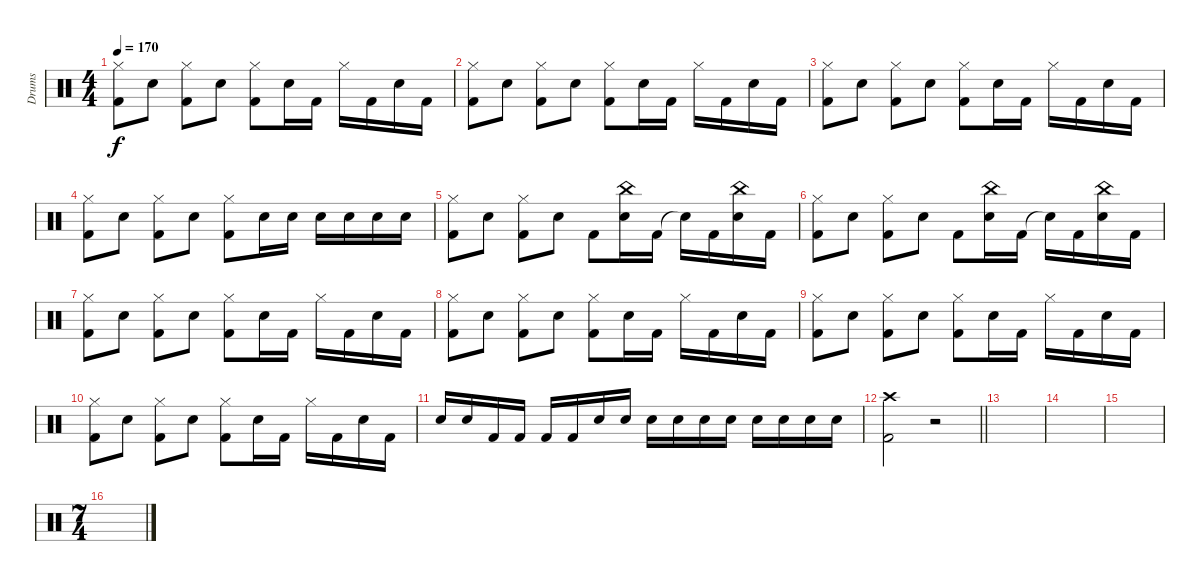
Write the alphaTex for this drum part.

\track ("Drums" "Drums") {instrument percussion}
\staff {score}
\articulation defaults
\ts (4 4)
\tempo 170
\clef neutral
\ks c
("Hi-Hat (closed)" "Kick (hit) 2").8{dy f} "Snare (hit) 2".8 ("Hi-Hat (closed)" "Kick (hit) 2").8 "Snare (hit) 2".8 ("Hi-Hat (closed)" "Kick (hit) 2").8 "Snare (hit) 2".16 "Kick (hit) 2".16 "Hi-Hat (closed)".16 "Kick (hit) 2".16 "Snare (hit) 2".16 "Kick (hit) 2".16 |
("Hi-Hat (closed)" "Kick (hit) 2").8 "Snare (hit) 2".8 ("Hi-Hat (closed)" "Kick (hit) 2").8 "Snare (hit) 2".8 ("Hi-Hat (closed)" "Kick (hit) 2").8 "Snare (hit) 2".16 "Kick (hit) 2".16 "Hi-Hat (closed)".16 "Kick (hit) 2".16 "Snare (hit) 2".16 "Kick (hit) 2".16 |
("Hi-Hat (closed)" "Kick (hit) 2").8 "Snare (hit) 2".8 ("Hi-Hat (closed)" "Kick (hit) 2").8 "Snare (hit) 2".8 ("Hi-Hat (closed)" "Kick (hit) 2").8 "Snare (hit) 2".16 "Kick (hit) 2".16 "Hi-Hat (closed)".16 "Kick (hit) 2".16 "Snare (hit) 2".16 "Kick (hit) 2".16 |
("Hi-Hat (closed)" "Kick (hit) 2").8 "Snare (hit) 2".8 ("Hi-Hat (closed)" "Kick (hit) 2").8 "Snare (hit) 2".8 ("Hi-Hat (closed)" "Kick (hit) 2").8 "Snare (hit) 2".16 "Snare (hit) 2".16 "Snare (hit) 2".16 "Snare (hit) 2".16 "Snare (hit) 2".16 "Snare (hit) 2".16 |
("Hi-Hat (closed)" "Kick (hit) 2").8 "Snare (hit) 2".8 ("Hi-Hat (closed)" "Kick (hit) 2").8 "Snare (hit) 2".8 "Kick (hit) 2".8 ("China (hit)" "Snare (hit) 2").16 "Kick (hit) 2".16 "Snare (hit)"{t}.16 "Kick (hit) 2".16 ("China (hit)" "Snare (hit) 2").16 "Kick (hit) 2".16 |
("Hi-Hat (closed)" "Kick (hit) 2").8 "Snare (hit) 2".8 ("Hi-Hat (closed)" "Kick (hit) 2").8 "Snare (hit) 2".8 "Kick (hit) 2".8 ("China (hit)" "Snare (hit) 2").16 "Kick (hit) 2".16 "Snare (hit)"{t}.16 "Kick (hit) 2".16 ("China (hit)" "Snare (hit) 2").16 "Kick (hit) 2".16 |
("Hi-Hat (closed)" "Kick (hit) 2").8 "Snare (hit) 2".8 ("Hi-Hat (closed)" "Kick (hit) 2").8 "Snare (hit) 2".8 ("Hi-Hat (closed)" "Kick (hit) 2").8 "Snare (hit) 2".16 "Kick (hit) 2".16 "Hi-Hat (closed)".16 "Kick (hit) 2".16 "Snare (hit) 2".16 "Kick (hit) 2".16 |
("Hi-Hat (closed)" "Kick (hit) 2").8 "Snare (hit) 2".8 ("Hi-Hat (closed)" "Kick (hit) 2").8 "Snare (hit) 2".8 ("Hi-Hat (closed)" "Kick (hit) 2").8 "Snare (hit) 2".16 "Kick (hit) 2".16 "Hi-Hat (closed)".16 "Kick (hit) 2".16 "Snare (hit) 2".16 "Kick (hit) 2".16 |
("Hi-Hat (closed)" "Kick (hit) 2").8 "Snare (hit) 2".8 ("Hi-Hat (closed)" "Kick (hit) 2").8 "Snare (hit) 2".8 ("Hi-Hat (closed)" "Kick (hit) 2").8 "Snare (hit) 2".16 "Kick (hit) 2".16 "Hi-Hat (closed)".16 "Kick (hit) 2".16 "Snare (hit) 2".16 "Kick (hit) 2".16 |
("Hi-Hat (closed)" "Kick (hit) 2").8 "Snare (hit) 2".8 ("Hi-Hat (closed)" "Kick (hit) 2").8 "Snare (hit) 2".8 ("Hi-Hat (closed)" "Kick (hit) 2").8 "Snare (hit) 2".16 "Kick (hit) 2".16 "Hi-Hat (closed)".16 "Kick (hit) 2".16 "Snare (hit) 2".16 "Kick (hit) 2".16 |
"Snare (hit) 2".16 "Snare (hit) 2".16 "Kick (hit) 2".16 "Kick (hit) 2".16 "Kick (hit) 2".16 "Kick (hit) 2".16 "Snare (hit) 2".16 "Snare (hit) 2".16 "Snare (hit) 2".16 "Snare (hit) 2".16 "Snare (hit) 2".16 "Snare (hit) 2".16 "Snare (hit) 2".16 "Snare (hit) 2".16 "Snare (hit) 2".16 "Snare (hit) 2".16 |
\barLineRight lightlight
("Crash high (hit)" "Kick (hit) 2").2 r.2 |
|
|
|
\ts (7 4)
